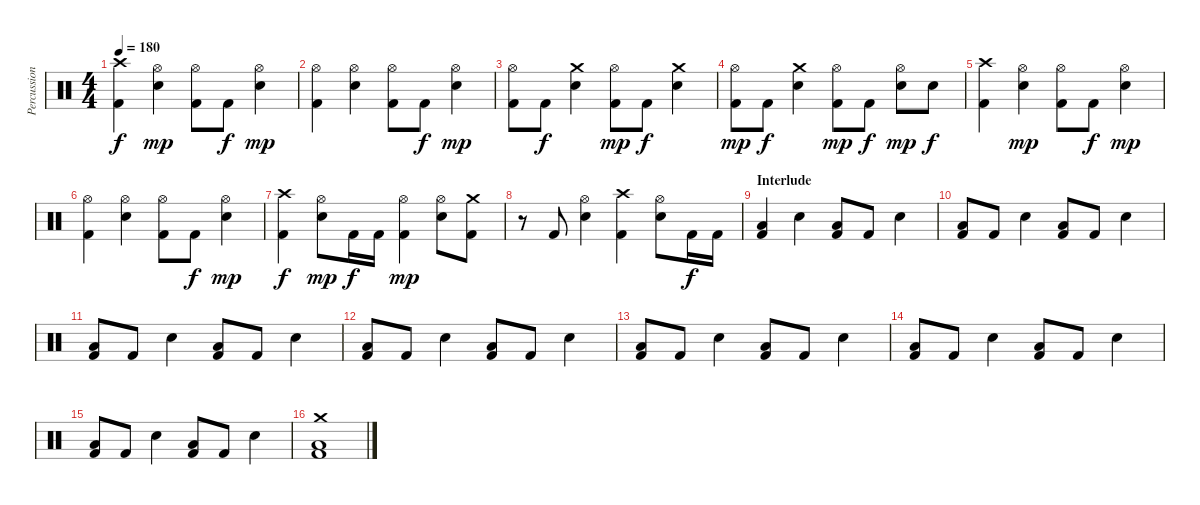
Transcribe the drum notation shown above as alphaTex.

\track ("Percussions" "Percussion") {instrument percussion}
\staff {score}
\articulation defaults
\ts (4 4)
\tempo 180
\clef neutral
\ks c
("Crash high (hit)" "Kick (hit) 2").4{dy f} ("Hi-Hat (open)" "Electric Snare (hit)").4{dy mp} ("Hi-Hat (open)" "Kick (hit) 2").8 "Kick (hit) 2".8{dy f} ("Hi-Hat (open)" "Electric Snare (hit)").4{dy mp} |
("Hi-Hat (open)" "Kick (hit) 2").4 ("Hi-Hat (open)" "Electric Snare (hit)").4 ("Hi-Hat (open)" "Kick (hit) 2").8 "Kick (hit) 2".8{dy f} ("Hi-Hat (open)" "Electric Snare (hit)").4{dy mp} |
("Hi-Hat (open)" "Kick (hit) 2").8 "Kick (hit) 2".8{dy f} ("Crash medium (hit)" "Electric Snare (hit)").4 ("Hi-Hat (open)" "Kick (hit) 2").8{dy mp} "Kick (hit) 2".8{dy f} ("Crash medium (hit)" "Electric Snare (hit)").4 |
("Hi-Hat (open)" "Kick (hit) 2").8{dy mp} "Kick (hit) 2".8{dy f} ("Crash medium (hit)" "Electric Snare (hit)").4 ("Hi-Hat (open)" "Kick (hit) 2").8{dy mp} "Kick (hit) 2".8{dy f} ("Hi-Hat (open)" "Electric Snare (hit)").8{dy mp} "Electric Snare (hit)".8{dy f} |
("Crash high (hit)" "Kick (hit) 2").4 ("Hi-Hat (open)" "Electric Snare (hit)").4{dy mp} ("Hi-Hat (open)" "Kick (hit) 2").8 "Kick (hit) 2".8{dy f} ("Hi-Hat (open)" "Electric Snare (hit)").4{dy mp} |
("Hi-Hat (open)" "Kick (hit) 2").4 ("Hi-Hat (open)" "Electric Snare (hit)").4 ("Hi-Hat (open)" "Kick (hit) 2").8 "Kick (hit) 2".8{dy f} ("Hi-Hat (open)" "Electric Snare (hit)").4{dy mp} |
("Crash high (hit)" "Kick (hit) 2").4{dy f} ("Hi-Hat (open)" "Electric Snare (hit)").8{dy mp} "Kick (hit) 2".16{dy f} "Kick (hit) 2".16 ("Hi-Hat (open)" "Kick (hit) 2").4{dy mp} ("Hi-Hat (open)" "Electric Snare (hit)").8 ("Crash medium (hit)" "Kick (hit) 2").8 |
r.8 "Kick (hit) 2".8 ("Hi-Hat (open)" "Electric Snare (hit)").4 ("Crash high (hit)" "Kick (hit) 2").4 ("Hi-Hat (open)" "Electric Snare (hit)").8 "Kick (hit) 2".16{dy f} "Kick (hit) 2".16 |
\section ("" "Interlude")
("Low Tom (hit)" "Kick (hit) 2").4 "Electric Snare (hit)".4 ("Low Tom (hit)" "Kick (hit) 2").8 "Kick (hit) 2".8 "Electric Snare (hit)".4 |
("Low Tom (hit)" "Kick (hit) 2").8 "Kick (hit) 2".8 "Electric Snare (hit)".4 ("Low Tom (hit)" "Kick (hit) 2").8 "Kick (hit) 2".8 "Electric Snare (hit)".4 |
("Low Tom (hit)" "Kick (hit) 2").8 "Kick (hit) 2".8 "Electric Snare (hit)".4 ("Low Tom (hit)" "Kick (hit) 2").8 "Kick (hit) 2".8 "Electric Snare (hit)".4 |
("Low Tom (hit)" "Kick (hit) 2").8 "Kick (hit) 2".8 "Electric Snare (hit)".4 ("Low Tom (hit)" "Kick (hit) 2").8 "Kick (hit) 2".8 "Electric Snare (hit)".4 |
("Low Tom (hit)" "Kick (hit) 2").8 "Kick (hit) 2".8 "Electric Snare (hit)".4 ("Low Tom (hit)" "Kick (hit) 2").8 "Kick (hit) 2".8 "Electric Snare (hit)".4 |
("Low Tom (hit)" "Kick (hit) 2").8 "Kick (hit) 2".8 "Electric Snare (hit)".4 ("Low Tom (hit)" "Kick (hit) 2").8 "Kick (hit) 2".8 "Electric Snare (hit)".4 |
("Low Tom (hit)" "Kick (hit) 2").8 "Kick (hit) 2".8 "Electric Snare (hit)".4 ("Low Tom (hit)" "Kick (hit) 2").8 "Kick (hit) 2".8 "Electric Snare (hit)".4 |
("Crash medium (hit)" "Low Tom (hit)" "Kick (hit) 2").1
